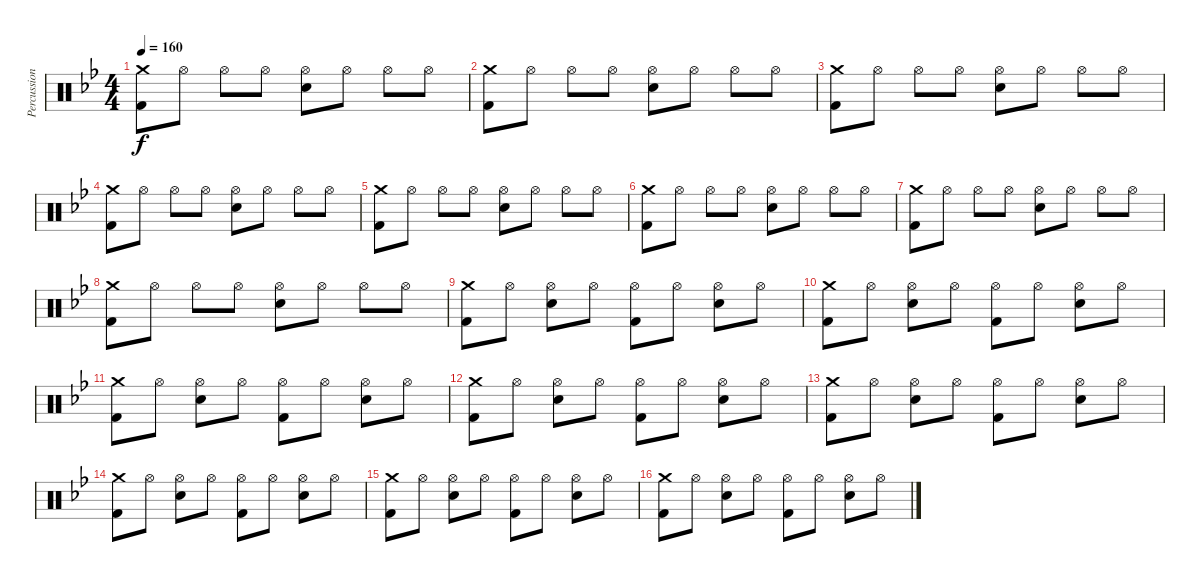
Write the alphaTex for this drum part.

\track ("Percussions" "Percussion") {instrument percussion}
\staff {score}
\articulation defaults
\ts (4 4)
\tempo 160
\clef neutral
\ks bb
("Crash medium (hit)" "Kick (hit) 2").8{dy f} "Hi-Hat (open)".8 "Hi-Hat (open)".8 "Hi-Hat (open)".8 ("Hi-Hat (open)" "Snare (hit) 2").8 "Hi-Hat (open)".8 "Hi-Hat (open)".8 "Hi-Hat (open)".8 |
("Crash medium (hit)" "Kick (hit) 2").8 "Hi-Hat (open)".8 "Hi-Hat (open)".8 "Hi-Hat (open)".8 ("Hi-Hat (open)" "Snare (hit) 2").8 "Hi-Hat (open)".8 "Hi-Hat (open)".8 "Hi-Hat (open)".8 |
("Crash medium (hit)" "Kick (hit) 2").8 "Hi-Hat (open)".8 "Hi-Hat (open)".8 "Hi-Hat (open)".8 ("Hi-Hat (open)" "Snare (hit) 2").8 "Hi-Hat (open)".8 "Hi-Hat (open)".8 "Hi-Hat (open)".8 |
("Crash medium (hit)" "Kick (hit) 2").8 "Hi-Hat (open)".8 "Hi-Hat (open)".8 "Hi-Hat (open)".8 ("Hi-Hat (open)" "Snare (hit) 2").8 "Hi-Hat (open)".8 "Hi-Hat (open)".8 "Hi-Hat (open)".8 |
("Crash medium (hit)" "Kick (hit) 2").8 "Hi-Hat (open)".8 "Hi-Hat (open)".8 "Hi-Hat (open)".8 ("Hi-Hat (open)" "Snare (hit) 2").8 "Hi-Hat (open)".8 "Hi-Hat (open)".8 "Hi-Hat (open)".8 |
("Crash medium (hit)" "Kick (hit) 2").8 "Hi-Hat (open)".8 "Hi-Hat (open)".8 "Hi-Hat (open)".8 ("Hi-Hat (open)" "Snare (hit) 2").8 "Hi-Hat (open)".8 "Hi-Hat (open)".8 "Hi-Hat (open)".8 |
("Crash medium (hit)" "Kick (hit) 2").8 "Hi-Hat (open)".8 "Hi-Hat (open)".8 "Hi-Hat (open)".8 ("Hi-Hat (open)" "Snare (hit) 2").8 "Hi-Hat (open)".8 "Hi-Hat (open)".8 "Hi-Hat (open)".8 |
("Crash medium (hit)" "Kick (hit) 2").8 "Hi-Hat (open)".8 "Hi-Hat (open)".8 "Hi-Hat (open)".8 ("Hi-Hat (open)" "Snare (hit) 2").8 "Hi-Hat (open)".8 "Hi-Hat (open)".8 "Hi-Hat (open)".8 |
("Crash medium (hit)" "Kick (hit) 2").8 "Hi-Hat (open)".8 ("Hi-Hat (open)" "Snare (hit) 2").8 "Hi-Hat (open)".8 ("Hi-Hat (open)" "Kick (hit) 2").8 "Hi-Hat (open)".8 ("Hi-Hat (open)" "Snare (hit) 2").8 "Hi-Hat (open)".8 |
("Crash medium (hit)" "Kick (hit) 2").8 "Hi-Hat (open)".8 ("Hi-Hat (open)" "Snare (hit) 2").8 "Hi-Hat (open)".8 ("Hi-Hat (open)" "Kick (hit) 2").8 "Hi-Hat (open)".8 ("Hi-Hat (open)" "Snare (hit) 2").8 "Hi-Hat (open)".8 |
("Crash medium (hit)" "Kick (hit) 2").8 "Hi-Hat (open)".8 ("Hi-Hat (open)" "Snare (hit) 2").8 "Hi-Hat (open)".8 ("Hi-Hat (open)" "Kick (hit) 2").8 "Hi-Hat (open)".8 ("Hi-Hat (open)" "Snare (hit) 2").8 "Hi-Hat (open)".8 |
("Crash medium (hit)" "Kick (hit) 2").8 "Hi-Hat (open)".8 ("Hi-Hat (open)" "Snare (hit) 2").8 "Hi-Hat (open)".8 ("Hi-Hat (open)" "Kick (hit) 2").8 "Hi-Hat (open)".8 ("Hi-Hat (open)" "Snare (hit) 2").8 "Hi-Hat (open)".8 |
("Crash medium (hit)" "Kick (hit) 2").8 "Hi-Hat (open)".8 ("Hi-Hat (open)" "Snare (hit) 2").8 "Hi-Hat (open)".8 ("Hi-Hat (open)" "Kick (hit) 2").8 "Hi-Hat (open)".8 ("Hi-Hat (open)" "Snare (hit) 2").8 "Hi-Hat (open)".8 |
("Crash medium (hit)" "Kick (hit) 2").8 "Hi-Hat (open)".8 ("Hi-Hat (open)" "Snare (hit) 2").8 "Hi-Hat (open)".8 ("Hi-Hat (open)" "Kick (hit) 2").8 "Hi-Hat (open)".8 ("Hi-Hat (open)" "Snare (hit) 2").8 "Hi-Hat (open)".8 |
("Crash medium (hit)" "Kick (hit) 2").8 "Hi-Hat (open)".8 ("Hi-Hat (open)" "Snare (hit) 2").8 "Hi-Hat (open)".8 ("Hi-Hat (open)" "Kick (hit) 2").8 "Hi-Hat (open)".8 ("Hi-Hat (open)" "Snare (hit) 2").8 "Hi-Hat (open)".8 |
("Crash medium (hit)" "Kick (hit) 2").8 "Hi-Hat (open)".8 ("Hi-Hat (open)" "Snare (hit) 2").8 "Hi-Hat (open)".8 ("Hi-Hat (open)" "Kick (hit) 2").8 "Hi-Hat (open)".8 ("Hi-Hat (open)" "Snare (hit) 2").8 "Hi-Hat (open)".8
